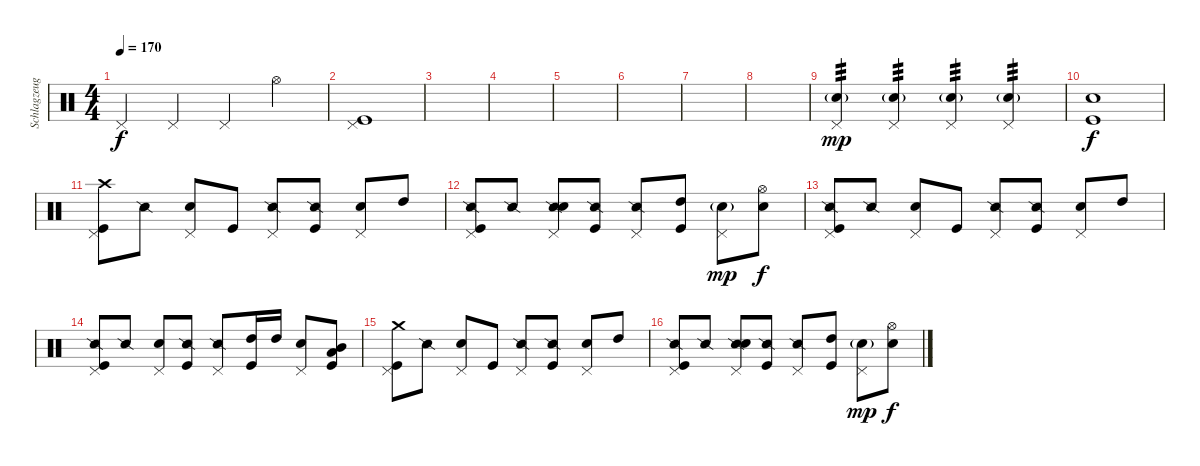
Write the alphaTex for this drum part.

\track ("Schlagzeug" "Schlagzeug") {instrument percussion}
\staff {score}
\articulation defaults
\ts (4 4)
\tempo 170
\clef neutral
\ks c "Pedal Hi-Hat (hit)".4{dy f} "Pedal Hi-Hat (hit)".4 "Pedal Hi-Hat (hit)".4 "Hi-Hat (open)".4
|
("Pedal Hi-Hat (hit)" "Kick (hit)").1 |
|
|
|
|
|
|
("Electric Snare (hit)"{g} "Pedal Hi-Hat (hit)").4{tp 3 dy mp} ("Electric Snare (hit)"{g} "Pedal Hi-Hat (hit)").4{tp 3} ("Electric Snare (hit)"{g} "Pedal Hi-Hat (hit)").4{tp 3} ("Electric Snare (hit)"{g} "Pedal Hi-Hat (hit)").4{tp 3} |
("Electric Snare (hit)" "Kick (hit)").1{dy f} |
("Crash high (hit)" "Pedal Hi-Hat (hit)" "Kick (hit)").8 "Snare (side stick) 2".8 ("Electric Snare (hit)" "Pedal Hi-Hat (hit)").8 "Kick (hit)".8 ("Snare (side stick) 2" "Pedal Hi-Hat (hit)").8 ("Snare (side stick) 2" "Kick (hit)").8 ("Electric Snare (hit)" "Pedal Hi-Hat (hit)").8 "High Tom (hit)".8 |
("Snare (side stick) 2" "Pedal Hi-Hat (hit)" "Kick (hit)").8 "Snare (side stick) 2".8 ("Snare (side stick) 2" "Electric Snare (hit)" "Pedal Hi-Hat (hit)").8 ("Snare (side stick) 2" "Kick (hit)").8 ("Snare (side stick) 2" "Pedal Hi-Hat (hit)").8 ("High Tom (hit)" "Kick (hit)").8 ("Electric Snare (hit)"{g} "Pedal Hi-Hat (hit)").8{dy mp} ("Hi-Hat (open)" "Electric Snare (hit)").8{dy f} |
("Snare (side stick) 2" "Pedal Hi-Hat (hit)" "Kick (hit)").8 "Snare (side stick) 2".8 ("Electric Snare (hit)" "Pedal Hi-Hat (hit)").8 "Kick (hit)".8 ("Snare (side stick) 2" "Pedal Hi-Hat (hit)").8 ("Snare (side stick) 2" "Kick (hit)").8 ("Electric Snare (hit)" "Pedal Hi-Hat (hit)").8 "High Tom (hit)".8 |
("Snare (side stick) 2" "Pedal Hi-Hat (hit)" "Kick (hit)").8 "Snare (side stick) 2".8 ("Electric Snare (hit)" "Pedal Hi-Hat (hit)").8 ("Snare (side stick) 2" "Kick (hit)").8 ("Snare (side stick) 2" "Pedal Hi-Hat (hit)").8 ("High Tom (hit)" "Kick (hit)").16 "High Tom (hit)".16 ("Electric Snare (hit)" "Pedal Hi-Hat (hit)").8 ("Mid Tom (hit)" "Low Tom (hit)" "Kick (hit)").8 |
("Crash medium (hit)" "Pedal Hi-Hat (hit)" "Kick (hit)").8 "Snare (side stick) 2".8 ("Electric Snare (hit)" "Pedal Hi-Hat (hit)").8 "Kick (hit)".8 ("Snare (side stick) 2" "Pedal Hi-Hat (hit)").8 ("Snare (side stick) 2" "Kick (hit)").8 ("Electric Snare (hit)" "Pedal Hi-Hat (hit)").8 "High Tom (hit)".8 |
("Snare (side stick) 2" "Pedal Hi-Hat (hit)" "Kick (hit)").8 "Snare (side stick) 2".8 ("Snare (side stick) 2" "Electric Snare (hit)" "Pedal Hi-Hat (hit)").8 ("Snare (side stick) 2" "Kick (hit)").8 ("Snare (side stick) 2" "Pedal Hi-Hat (hit)").8 ("High Tom (hit)" "Kick (hit)").8 ("Electric Snare (hit)"{g} "Pedal Hi-Hat (hit)").8{dy mp} ("Hi-Hat (open)" "Electric Snare (hit)").8{dy f}
